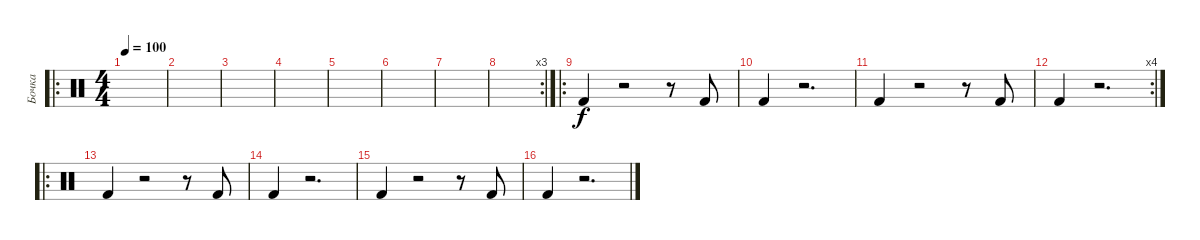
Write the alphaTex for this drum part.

\track ("Бочка" "Бочка") {instrument percussion}
\staff {score}
\articulation defaults
\ro
\ts (4 4)
\tempo 100
\clef neutral
\ks c
|
|
|
|
|
|
|
\rc 3
|
\ro "Kick (hit) 2".4
r.2 r.8 "Kick (hit) 2".8 |
"Kick (hit) 2".4 r.2{d} |
"Kick (hit) 2".4 r.2 r.8 "Kick (hit) 2".8 |
\rc 4 "Kick (hit) 2".4
r.2{d} |
\ro "Kick (hit) 2".4
r.2 r.8 "Kick (hit) 2".8 |
"Kick (hit) 2".4 r.2{d} |
"Kick (hit) 2".4 r.2 r.8 "Kick (hit) 2".8 |
"Kick (hit) 2".4 r.2{d}
